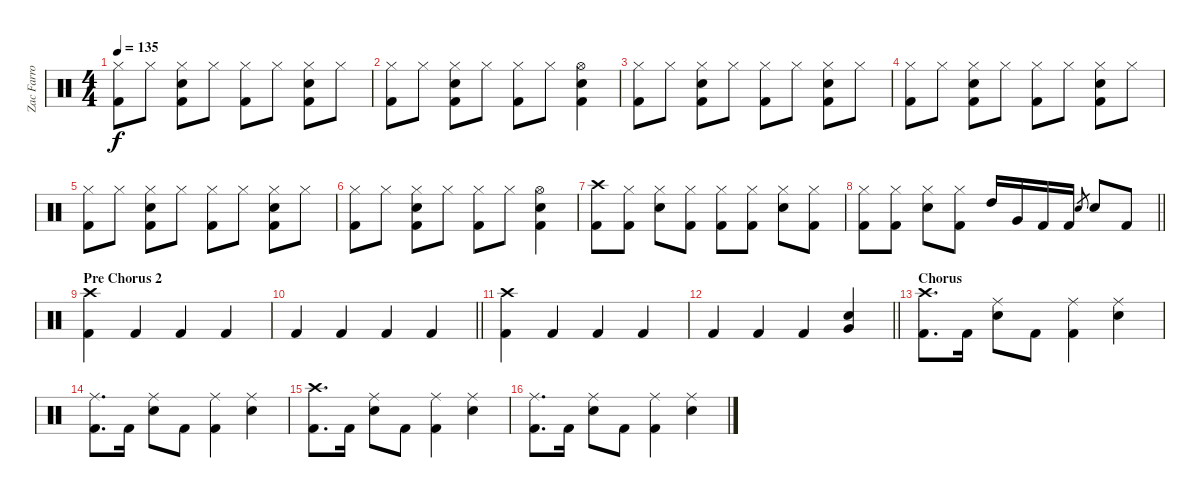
\track ("Zac Farro (Percussion)" "Zac Farro ") {instrument percussion}
\staff {score}
\articulation defaults
\ts (4 4)
\tempo 135
\clef neutral
\ks c
("Hi-Hat (closed)" "Kick (hit) 2").8{dy f} "Hi-Hat (closed)".8 ("Hi-Hat (closed)" "Snare (hit) 2" "Kick (hit) 2").8 "Hi-Hat (closed)".8 ("Hi-Hat (closed)" "Kick (hit) 2").8 "Hi-Hat (closed)".8 ("Hi-Hat (closed)" "Snare (hit) 2" "Kick (hit) 2").8 "Hi-Hat (closed)".8 |
("Hi-Hat (closed)" "Kick (hit) 2").8 "Hi-Hat (closed)".8 ("Hi-Hat (closed)" "Snare (hit) 2" "Kick (hit) 2").8 "Hi-Hat (closed)".8 ("Hi-Hat (closed)" "Kick (hit) 2").8 "Hi-Hat (closed)".8 ("Hi-Hat (open)" "Snare (hit) 2" "Kick (hit) 2").4 |
("Hi-Hat (closed)" "Kick (hit) 2").8 "Hi-Hat (closed)".8 ("Hi-Hat (closed)" "Snare (hit) 2" "Kick (hit) 2").8 "Hi-Hat (closed)".8 ("Hi-Hat (closed)" "Kick (hit) 2").8 "Hi-Hat (closed)".8 ("Hi-Hat (closed)" "Snare (hit) 2" "Kick (hit) 2").8 "Hi-Hat (closed)".8 |
("Hi-Hat (closed)" "Kick (hit) 2").8 "Hi-Hat (closed)".8 ("Hi-Hat (closed)" "Snare (hit) 2" "Kick (hit) 2").8 "Hi-Hat (closed)".8 ("Hi-Hat (closed)" "Kick (hit) 2").8 "Hi-Hat (closed)".8 ("Hi-Hat (closed)" "Snare (hit) 2" "Kick (hit) 2").8 "Hi-Hat (closed)".8 |
("Hi-Hat (closed)" "Kick (hit) 2").8 "Hi-Hat (closed)".8 ("Hi-Hat (closed)" "Snare (hit) 2" "Kick (hit) 2").8 "Hi-Hat (closed)".8 ("Hi-Hat (closed)" "Kick (hit) 2").8 "Hi-Hat (closed)".8 ("Hi-Hat (closed)" "Snare (hit) 2" "Kick (hit) 2").8 "Hi-Hat (closed)".8 |
("Hi-Hat (closed)" "Kick (hit) 2").8 "Hi-Hat (closed)".8 ("Hi-Hat (closed)" "Snare (hit) 2" "Kick (hit) 2").8 "Hi-Hat (closed)".8 ("Hi-Hat (closed)" "Kick (hit) 2").8 "Hi-Hat (closed)".8 ("Hi-Hat (open)" "Snare (hit) 2" "Kick (hit) 2").4 |
("Crash high (hit)" "Kick (hit) 2").8 ("Hi-Hat (closed)" "Kick (hit) 2").8 ("Hi-Hat (closed)" "Snare (hit) 2").8 ("Hi-Hat (closed)" "Kick (hit) 2").8 ("Hi-Hat (closed)" "Kick (hit) 2").8 ("Hi-Hat (closed)" "Kick (hit) 2").8 ("Hi-Hat (closed)" "Snare (hit) 2").8 ("Hi-Hat (closed)" "Kick (hit) 2").8 |
\barLineRight lightlight
("Hi-Hat (closed)" "Kick (hit) 2").8 ("Hi-Hat (closed)" "Kick (hit) 2").8 ("Hi-Hat (closed)" "Snare (hit) 2").8 ("Hi-Hat (closed)" "Kick (hit) 2").8 "High Tom (hit)".16 "Very Low Tom (hit)".16 "Kick (hit) 2".16 "Kick (hit) 2".16 "Snare (hit) 2".8{gr} "Snare (hit) 2".8 "Kick (hit) 2".8 |
\section ("" "Pre Chorus 2")
("Crash high (hit)" "Kick (hit) 2").4 "Kick (hit) 2".4 "Kick (hit) 2".4 "Kick (hit) 2".4 |
\barLineRight lightlight "Kick (hit) 2".4 "Kick (hit) 2".4 "Kick (hit) 2".4 "Kick (hit) 2".4
|
("Crash high (hit)" "Kick (hit) 2").4 "Kick (hit) 2".4 "Kick (hit) 2".4 "Kick (hit) 2".4 |
\barLineRight lightlight "Kick (hit) 2".4 "Kick (hit) 2".4 "Kick (hit) 2".4
("Snare (hit) 2" "Very Low Tom (hit)").4 |
\section ("" "Chorus")
("Crash high (hit)" "Kick (hit) 2").8{d} "Kick (hit) 2".16 ("Ride (middle)" "Snare (hit) 2").8 "Kick (hit) 2".8 ("Ride (middle)" "Kick (hit) 2").4 ("Ride (middle)" "Snare (hit) 2").4 |
("Ride (middle)" "Kick (hit) 2").8{d} "Kick (hit) 2".16 ("Ride (middle)" "Snare (hit) 2").8 "Kick (hit) 2".8 ("Ride (middle)" "Kick (hit) 2").4 ("Ride (middle)" "Snare (hit) 2").4 |
("Crash high (hit)" "Kick (hit) 2").8{d} "Kick (hit) 2".16 ("Ride (middle)" "Snare (hit) 2").8 "Kick (hit) 2".8 ("Ride (middle)" "Kick (hit) 2").4 ("Ride (middle)" "Snare (hit) 2").4 |
("Ride (middle)" "Kick (hit) 2").8{d} "Kick (hit) 2".16 ("Ride (middle)" "Snare (hit) 2").8 "Kick (hit) 2".8 ("Ride (middle)" "Kick (hit) 2").4 ("Ride (middle)" "Snare (hit) 2").4
